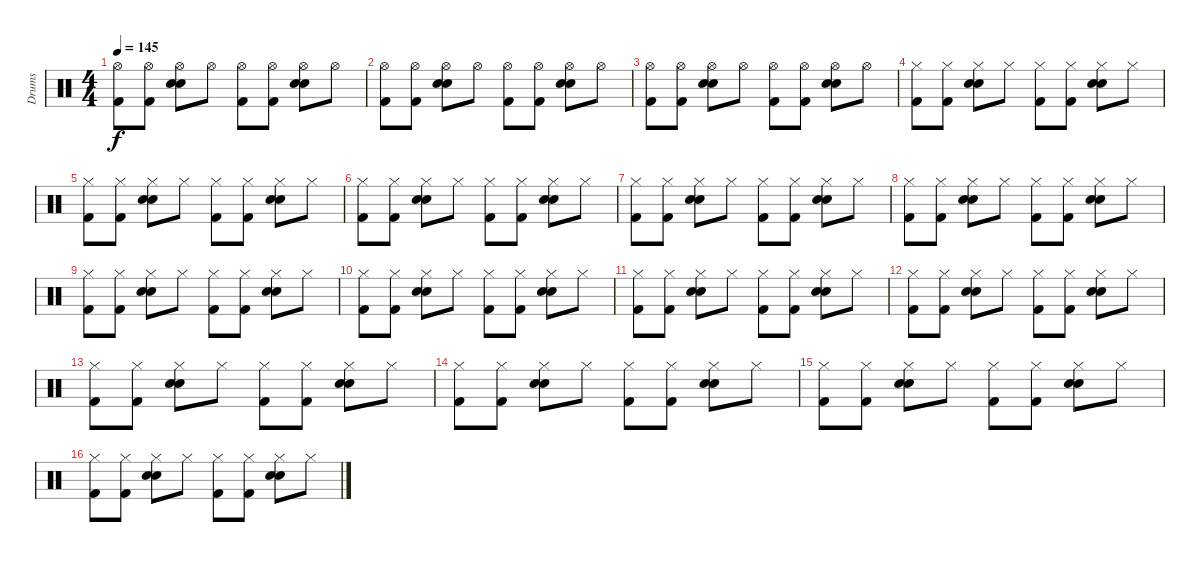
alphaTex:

\track ("Drums" "Drums") {instrument percussion}
\staff {score}
\articulation defaults
\ts (4 4)
\tempo 145
\clef neutral
\ks c
("Hi-Hat (open)" "Kick (hit) 2").8{dy f} ("Hi-Hat (open)" "Kick (hit) 2").8 ("Hi-Hat (open)" "Electric Snare (hit)" "Snare (hit) 2").8 "Hi-Hat (open)".8 ("Hi-Hat (open)" "Kick (hit) 2").8 ("Hi-Hat (open)" "Kick (hit) 2").8 ("Hi-Hat (open)" "Electric Snare (hit)" "Snare (hit) 2").8 "Hi-Hat (open)".8 |
("Hi-Hat (open)" "Kick (hit) 2").8 ("Hi-Hat (open)" "Kick (hit) 2").8 ("Hi-Hat (open)" "Electric Snare (hit)" "Snare (hit) 2").8 "Hi-Hat (open)".8 ("Hi-Hat (open)" "Kick (hit) 2").8 ("Hi-Hat (open)" "Kick (hit) 2").8 ("Hi-Hat (open)" "Electric Snare (hit)" "Snare (hit) 2").8 "Hi-Hat (open)".8 |
("Hi-Hat (open)" "Kick (hit) 2").8 ("Hi-Hat (open)" "Kick (hit) 2").8 ("Hi-Hat (open)" "Electric Snare (hit)" "Snare (hit) 2").8 "Hi-Hat (open)".8 ("Hi-Hat (open)" "Kick (hit) 2").8 ("Hi-Hat (open)" "Kick (hit) 2").8 ("Hi-Hat (open)" "Electric Snare (hit)" "Snare (hit) 2").8 "Hi-Hat (open)".8 |
("Hi-Hat (closed)" "Kick (hit) 2").8 ("Hi-Hat (closed)" "Kick (hit) 2").8 ("Hi-Hat (closed)" "Electric Snare (hit)" "Snare (hit) 2").8 "Hi-Hat (closed)".8 ("Hi-Hat (closed)" "Kick (hit) 2").8 ("Hi-Hat (closed)" "Kick (hit) 2").8 ("Hi-Hat (closed)" "Electric Snare (hit)" "Snare (hit) 2").8 "Hi-Hat (closed)".8 |
("Hi-Hat (closed)" "Kick (hit) 2").8 ("Hi-Hat (closed)" "Kick (hit) 2").8 ("Hi-Hat (closed)" "Electric Snare (hit)" "Snare (hit) 2").8 "Hi-Hat (closed)".8 ("Hi-Hat (closed)" "Kick (hit) 2").8 ("Hi-Hat (closed)" "Kick (hit) 2").8 ("Hi-Hat (closed)" "Electric Snare (hit)" "Snare (hit) 2").8 "Hi-Hat (closed)".8 |
("Hi-Hat (closed)" "Kick (hit) 2").8 ("Hi-Hat (closed)" "Kick (hit) 2").8 ("Hi-Hat (closed)" "Electric Snare (hit)" "Snare (hit) 2").8 "Hi-Hat (closed)".8 ("Hi-Hat (closed)" "Kick (hit) 2").8 ("Hi-Hat (closed)" "Kick (hit) 2").8 ("Hi-Hat (closed)" "Electric Snare (hit)" "Snare (hit) 2").8 "Hi-Hat (closed)".8 |
("Hi-Hat (closed)" "Kick (hit) 2").8 ("Hi-Hat (closed)" "Kick (hit) 2").8 ("Hi-Hat (closed)" "Electric Snare (hit)" "Snare (hit) 2").8 "Hi-Hat (closed)".8 ("Hi-Hat (closed)" "Kick (hit) 2").8 ("Hi-Hat (closed)" "Kick (hit) 2").8 ("Hi-Hat (closed)" "Electric Snare (hit)" "Snare (hit) 2").8 "Hi-Hat (closed)".8 |
("Hi-Hat (closed)" "Kick (hit) 2").8 ("Hi-Hat (closed)" "Kick (hit) 2").8 ("Hi-Hat (closed)" "Electric Snare (hit)" "Snare (hit) 2").8 "Hi-Hat (closed)".8 ("Hi-Hat (closed)" "Kick (hit) 2").8 ("Hi-Hat (closed)" "Kick (hit) 2").8 ("Hi-Hat (closed)" "Electric Snare (hit)" "Snare (hit) 2").8 "Hi-Hat (closed)".8 |
("Hi-Hat (closed)" "Kick (hit) 2").8 ("Hi-Hat (closed)" "Kick (hit) 2").8 ("Hi-Hat (closed)" "Electric Snare (hit)" "Snare (hit) 2").8 "Hi-Hat (closed)".8 ("Hi-Hat (closed)" "Kick (hit) 2").8 ("Hi-Hat (closed)" "Kick (hit) 2").8 ("Hi-Hat (closed)" "Electric Snare (hit)" "Snare (hit) 2").8 "Hi-Hat (closed)".8 |
("Hi-Hat (closed)" "Kick (hit) 2").8 ("Hi-Hat (closed)" "Kick (hit) 2").8 ("Hi-Hat (closed)" "Electric Snare (hit)" "Snare (hit) 2").8 "Hi-Hat (closed)".8 ("Hi-Hat (closed)" "Kick (hit) 2").8 ("Hi-Hat (closed)" "Kick (hit) 2").8 ("Hi-Hat (closed)" "Electric Snare (hit)" "Snare (hit) 2").8 "Hi-Hat (closed)".8 |
("Hi-Hat (closed)" "Kick (hit) 2").8 ("Hi-Hat (closed)" "Kick (hit) 2").8 ("Hi-Hat (closed)" "Electric Snare (hit)" "Snare (hit) 2").8 "Hi-Hat (closed)".8 ("Hi-Hat (closed)" "Kick (hit) 2").8 ("Hi-Hat (closed)" "Kick (hit) 2").8 ("Hi-Hat (closed)" "Electric Snare (hit)" "Snare (hit) 2").8 "Hi-Hat (closed)".8 |
("Hi-Hat (closed)" "Kick (hit) 2").8 ("Hi-Hat (closed)" "Kick (hit) 2").8 ("Hi-Hat (closed)" "Electric Snare (hit)" "Snare (hit) 2").8 "Hi-Hat (closed)".8 ("Hi-Hat (closed)" "Kick (hit) 2").8 ("Hi-Hat (closed)" "Kick (hit) 2").8 ("Hi-Hat (closed)" "Electric Snare (hit)" "Snare (hit) 2").8 "Hi-Hat (closed)".8 |
("Hi-Hat (closed)" "Kick (hit) 2").8 ("Hi-Hat (closed)" "Kick (hit) 2").8 ("Hi-Hat (closed)" "Electric Snare (hit)" "Snare (hit) 2").8 "Hi-Hat (closed)".8 ("Hi-Hat (closed)" "Kick (hit) 2").8 ("Hi-Hat (closed)" "Kick (hit) 2").8 ("Hi-Hat (closed)" "Electric Snare (hit)" "Snare (hit) 2").8 "Hi-Hat (closed)".8 |
("Hi-Hat (closed)" "Kick (hit) 2").8 ("Hi-Hat (closed)" "Kick (hit) 2").8 ("Hi-Hat (closed)" "Electric Snare (hit)" "Snare (hit) 2").8 "Hi-Hat (closed)".8 ("Hi-Hat (closed)" "Kick (hit) 2").8 ("Hi-Hat (closed)" "Kick (hit) 2").8 ("Hi-Hat (closed)" "Electric Snare (hit)" "Snare (hit) 2").8 "Hi-Hat (closed)".8 |
("Hi-Hat (closed)" "Kick (hit) 2").8 ("Hi-Hat (closed)" "Kick (hit) 2").8 ("Hi-Hat (closed)" "Electric Snare (hit)" "Snare (hit) 2").8 "Hi-Hat (closed)".8 ("Hi-Hat (closed)" "Kick (hit) 2").8 ("Hi-Hat (closed)" "Kick (hit) 2").8 ("Hi-Hat (closed)" "Electric Snare (hit)" "Snare (hit) 2").8 "Hi-Hat (closed)".8 |
("Hi-Hat (closed)" "Kick (hit) 2").8 ("Hi-Hat (closed)" "Kick (hit) 2").8 ("Hi-Hat (closed)" "Electric Snare (hit)" "Snare (hit) 2").8 "Hi-Hat (closed)".8 ("Hi-Hat (closed)" "Kick (hit) 2").8 ("Hi-Hat (closed)" "Kick (hit) 2").8 ("Hi-Hat (closed)" "Electric Snare (hit)" "Snare (hit) 2").8 "Hi-Hat (closed)".8
